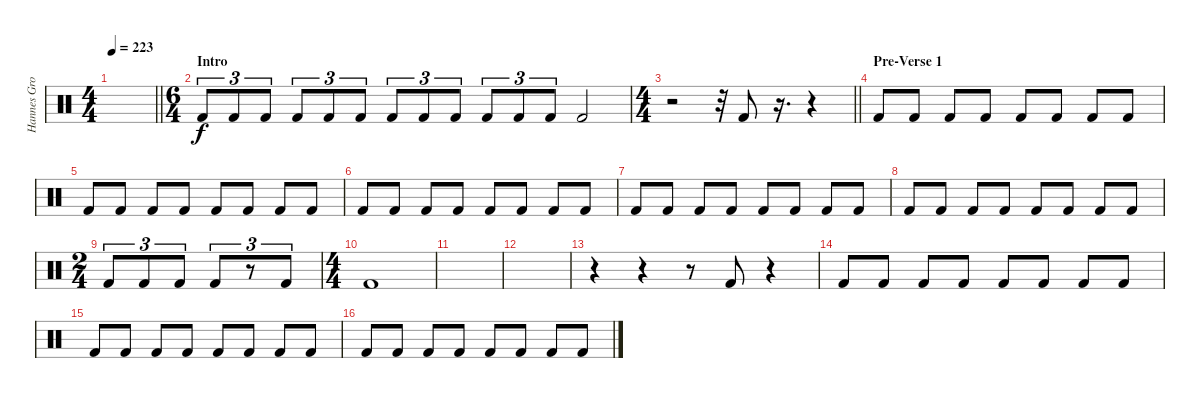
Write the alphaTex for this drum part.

\track ("Hannes Grossmann" "Hannes Gro") {instrument percussion}
\staff {score}
\articulation defaults
\ts (4 4)
\tempo 223
\clef neutral
\barLineRight lightlight
\ks c
|
\ts (6 4)
\section ("" "Intro")
"Kick (hit) 2".8{tu (3 2)} "Kick (hit) 2".8{tu (3 2)} "Kick (hit) 2".8{tu (3 2)} "Kick (hit) 2".8{tu (3 2)} "Kick (hit) 2".8{tu (3 2)} "Kick (hit) 2".8{tu (3 2)} "Kick (hit) 2".8{tu (3 2)} "Kick (hit) 2".8{tu (3 2)} "Kick (hit) 2".8{tu (3 2)} "Kick (hit) 2".8{tu (3 2)} "Kick (hit) 2".8{tu (3 2)} "Kick (hit) 2".8{tu (3 2)} "Kick (hit) 2".2 |
\ts (4 4)
\barLineRight lightlight
r.2 r.32 "Kick (hit) 2".8 r.16{d} r.4 |
\section ("" "Pre-Verse 1")
"Kick (hit) 2".8 "Kick (hit) 2".8 "Kick (hit) 2".8 "Kick (hit) 2".8 "Kick (hit) 2".8 "Kick (hit) 2".8 "Kick (hit) 2".8 "Kick (hit) 2".8 |
"Kick (hit) 2".8 "Kick (hit) 2".8 "Kick (hit) 2".8 "Kick (hit) 2".8 "Kick (hit) 2".8 "Kick (hit) 2".8 "Kick (hit) 2".8 "Kick (hit) 2".8 |
"Kick (hit) 2".8 "Kick (hit) 2".8 "Kick (hit) 2".8 "Kick (hit) 2".8 "Kick (hit) 2".8 "Kick (hit) 2".8 "Kick (hit) 2".8 "Kick (hit) 2".8 |
"Kick (hit) 2".8 "Kick (hit) 2".8 "Kick (hit) 2".8 "Kick (hit) 2".8 "Kick (hit) 2".8 "Kick (hit) 2".8 "Kick (hit) 2".8 "Kick (hit) 2".8 |
"Kick (hit) 2".8 "Kick (hit) 2".8 "Kick (hit) 2".8 "Kick (hit) 2".8 "Kick (hit) 2".8 "Kick (hit) 2".8 "Kick (hit) 2".8 "Kick (hit) 2".8 |
\ts (2 4)
"Kick (hit) 2".8{tu (3 2)} "Kick (hit) 2".8{tu (3 2)} "Kick (hit) 2".8{tu (3 2)} "Kick (hit) 2".8{tu (3 2)} r.8{tu (3 2)} "Kick (hit) 2".8{tu (3 2)} |
\ts (4 4)
"Kick (hit) 2".1 |
|
|
r.4 r.4 r.8 "Kick (hit) 2".8 r.4 |
"Kick (hit) 2".8 "Kick (hit) 2".8 "Kick (hit) 2".8 "Kick (hit) 2".8 "Kick (hit) 2".8 "Kick (hit) 2".8 "Kick (hit) 2".8 "Kick (hit) 2".8 |
"Kick (hit) 2".8 "Kick (hit) 2".8 "Kick (hit) 2".8 "Kick (hit) 2".8 "Kick (hit) 2".8 "Kick (hit) 2".8 "Kick (hit) 2".8 "Kick (hit) 2".8 |
"Kick (hit) 2".8 "Kick (hit) 2".8 "Kick (hit) 2".8 "Kick (hit) 2".8 "Kick (hit) 2".8 "Kick (hit) 2".8 "Kick (hit) 2".8 "Kick (hit) 2".8
